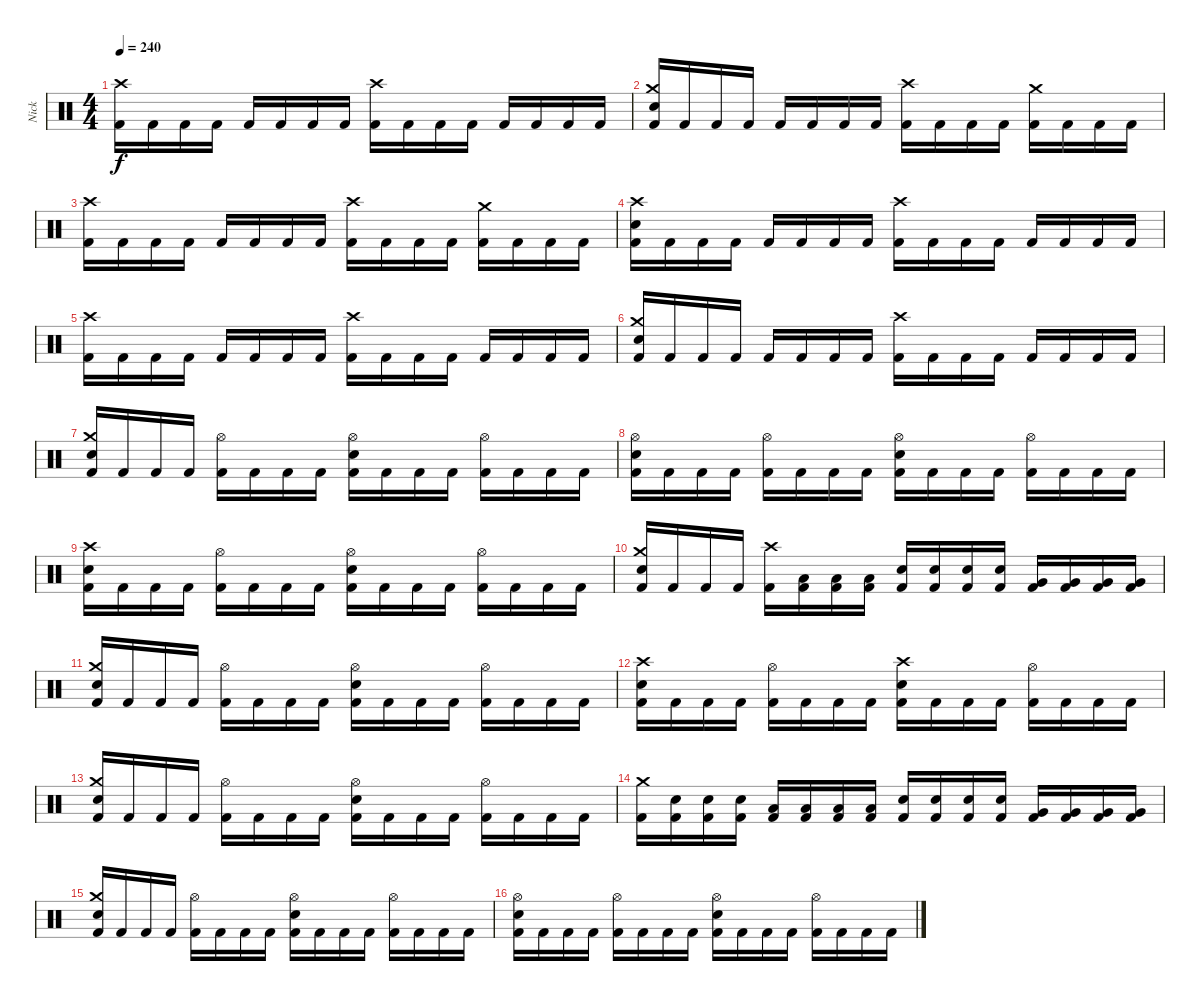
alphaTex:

\track ("Nick" "Nick") {instrument percussion}
\staff {score}
\articulation defaults
\ts (4 4)
\tempo 240
\clef neutral
\ks c
("Crash high (hit)" "Kick (hit) 2").16{dy f} "Kick (hit) 2".16 "Kick (hit) 2".16 "Kick (hit) 2".16 "Kick (hit) 2".16 "Kick (hit) 2".16 "Kick (hit) 2".16 "Kick (hit) 2".16 ("Crash high (hit)" "Kick (hit) 2").16 "Kick (hit) 2".16 "Kick (hit) 2".16 "Kick (hit) 2".16 "Kick (hit) 2".16 "Kick (hit) 2".16 "Kick (hit) 2".16 "Kick (hit) 2".16 |
("Crash medium (hit)" "Electric Snare (hit)" "Kick (hit) 2").16 "Kick (hit) 2".16 "Kick (hit) 2".16 "Kick (hit) 2".16 "Kick (hit) 2".16 "Kick (hit) 2".16 "Kick (hit) 2".16 "Kick (hit) 2".16 ("Crash high (hit)" "Kick (hit) 2").16 "Kick (hit) 2".16 "Kick (hit) 2".16 "Kick (hit) 2".16 ("Crash medium (hit)" "Kick (hit) 2").16 "Kick (hit) 2".16 "Kick (hit) 2".16 "Kick (hit) 2".16 |
("Crash high (hit)" "Kick (hit) 2").16 "Kick (hit) 2".16 "Kick (hit) 2".16 "Kick (hit) 2".16 "Kick (hit) 2".16 "Kick (hit) 2".16 "Kick (hit) 2".16 "Kick (hit) 2".16 ("Crash high (hit)" "Kick (hit) 2").16 "Kick (hit) 2".16 "Kick (hit) 2".16 "Kick (hit) 2".16 ("Crash medium (hit)" "Kick (hit) 2").16 "Kick (hit) 2".16 "Kick (hit) 2".16 "Kick (hit) 2".16 |
("Crash high (hit)" "Electric Snare (hit)" "Kick (hit) 2").16 "Kick (hit) 2".16 "Kick (hit) 2".16 "Kick (hit) 2".16 "Kick (hit) 2".16 "Kick (hit) 2".16 "Kick (hit) 2".16 "Kick (hit) 2".16 ("Crash high (hit)" "Kick (hit) 2").16 "Kick (hit) 2".16 "Kick (hit) 2".16 "Kick (hit) 2".16 "Kick (hit) 2".16 "Kick (hit) 2".16 "Kick (hit) 2".16 "Kick (hit) 2".16 |
("Crash high (hit)" "Kick (hit) 2").16 "Kick (hit) 2".16 "Kick (hit) 2".16 "Kick (hit) 2".16 "Kick (hit) 2".16 "Kick (hit) 2".16 "Kick (hit) 2".16 "Kick (hit) 2".16 ("Crash high (hit)" "Kick (hit) 2").16 "Kick (hit) 2".16 "Kick (hit) 2".16 "Kick (hit) 2".16 "Kick (hit) 2".16 "Kick (hit) 2".16 "Kick (hit) 2".16 "Kick (hit) 2".16 |
("Crash medium (hit)" "Electric Snare (hit)" "Kick (hit) 2").16 "Kick (hit) 2".16 "Kick (hit) 2".16 "Kick (hit) 2".16 "Kick (hit) 2".16 "Kick (hit) 2".16 "Kick (hit) 2".16 "Kick (hit) 2".16 ("Crash high (hit)" "Kick (hit) 2").16 "Kick (hit) 2".16 "Kick (hit) 2".16 "Kick (hit) 2".16 "Kick (hit) 2".16 "Kick (hit) 2".16 "Kick (hit) 2".16 "Kick (hit) 2".16 |
("Crash medium (hit)" "Electric Snare (hit)" "Kick (hit) 2").16 "Kick (hit) 2".16 "Kick (hit) 2".16 "Kick (hit) 2".16 ("Hi-Hat (open)" "Kick (hit) 2").16 "Kick (hit) 2".16 "Kick (hit) 2".16 "Kick (hit) 2".16 ("Hi-Hat (open)" "Electric Snare (hit)" "Kick (hit) 2").16 "Kick (hit) 2".16 "Kick (hit) 2".16 "Kick (hit) 2".16 ("Hi-Hat (open)" "Kick (hit) 2").16 "Kick (hit) 2".16 "Kick (hit) 2".16 "Kick (hit) 2".16 |
("Hi-Hat (open)" "Electric Snare (hit)" "Kick (hit) 2").16 "Kick (hit) 2".16 "Kick (hit) 2".16 "Kick (hit) 2".16 ("Hi-Hat (open)" "Kick (hit) 2").16 "Kick (hit) 2".16 "Kick (hit) 2".16 "Kick (hit) 2".16 ("Hi-Hat (open)" "Electric Snare (hit)" "Kick (hit) 2").16 "Kick (hit) 2".16 "Kick (hit) 2".16 "Kick (hit) 2".16 ("Hi-Hat (open)" "Kick (hit) 2").16 "Kick (hit) 2".16 "Kick (hit) 2".16 "Kick (hit) 2".16 |
("Crash high (hit)" "Electric Snare (hit)" "Kick (hit) 2").16 "Kick (hit) 2".16 "Kick (hit) 2".16 "Kick (hit) 2".16 ("Hi-Hat (open)" "Kick (hit) 2").16 "Kick (hit) 2".16 "Kick (hit) 2".16 "Kick (hit) 2".16 ("Hi-Hat (open)" "Electric Snare (hit)" "Kick (hit) 2").16 "Kick (hit) 2".16 "Kick (hit) 2".16 "Kick (hit) 2".16 ("Hi-Hat (open)" "Kick (hit) 2").16 "Kick (hit) 2".16 "Kick (hit) 2".16 "Kick (hit) 2".16 |
("Crash medium (hit)" "Electric Snare (hit)" "Kick (hit) 2").16 "Kick (hit) 2".16 "Kick (hit) 2".16 "Kick (hit) 2".16 ("Crash high (hit)" "Kick (hit) 2").16 ("Low Tom (hit)" "Kick (hit) 2").16 ("Low Tom (hit)" "Kick (hit) 2").16 ("Low Tom (hit)" "Kick (hit) 2").16 ("Electric Snare (hit)" "Kick (hit) 2").16 ("Electric Snare (hit)" "Kick (hit) 2").16 ("Electric Snare (hit)" "Kick (hit) 2").16 ("Electric Snare (hit)" "Kick (hit) 2").16 ("Very Low Tom (hit)" "Kick (hit) 2").16 ("Very Low Tom (hit)" "Kick (hit) 2").16 ("Very Low Tom (hit)" "Kick (hit) 2").16 ("Very Low Tom (hit)" "Kick (hit) 2").16 |
("Crash medium (hit)" "Electric Snare (hit)" "Kick (hit) 2").16 "Kick (hit) 2".16 "Kick (hit) 2".16 "Kick (hit) 2".16 ("Hi-Hat (open)" "Kick (hit) 2").16 "Kick (hit) 2".16 "Kick (hit) 2".16 "Kick (hit) 2".16 ("Hi-Hat (open)" "Electric Snare (hit)" "Kick (hit) 2").16 "Kick (hit) 2".16 "Kick (hit) 2".16 "Kick (hit) 2".16 ("Hi-Hat (open)" "Kick (hit) 2").16 "Kick (hit) 2".16 "Kick (hit) 2".16 "Kick (hit) 2".16 |
("Crash high (hit)" "Electric Snare (hit)" "Kick (hit) 2").16 "Kick (hit) 2".16 "Kick (hit) 2".16 "Kick (hit) 2".16 ("Hi-Hat (open)" "Kick (hit) 2").16 "Kick (hit) 2".16 "Kick (hit) 2".16 "Kick (hit) 2".16 ("Crash high (hit)" "Electric Snare (hit)" "Kick (hit) 2").16 "Kick (hit) 2".16 "Kick (hit) 2".16 "Kick (hit) 2".16 ("Hi-Hat (open)" "Kick (hit) 2").16 "Kick (hit) 2".16 "Kick (hit) 2".16 "Kick (hit) 2".16 |
("Crash medium (hit)" "Electric Snare (hit)" "Kick (hit) 2").16 "Kick (hit) 2".16 "Kick (hit) 2".16 "Kick (hit) 2".16 ("Hi-Hat (open)" "Kick (hit) 2").16 "Kick (hit) 2".16 "Kick (hit) 2".16 "Kick (hit) 2".16 ("Hi-Hat (open)" "Electric Snare (hit)" "Kick (hit) 2").16 "Kick (hit) 2".16 "Kick (hit) 2".16 "Kick (hit) 2".16 ("Hi-Hat (open)" "Kick (hit) 2").16 "Kick (hit) 2".16 "Kick (hit) 2".16 "Kick (hit) 2".16 |
("Crash medium (hit)" "Kick (hit) 2").16 ("Electric Snare (hit)" "Kick (hit) 2").16 ("Electric Snare (hit)" "Kick (hit) 2").16 ("Electric Snare (hit)" "Kick (hit) 2").16 ("Low Tom (hit)" "Kick (hit) 2").16 ("Low Tom (hit)" "Kick (hit) 2").16 ("Low Tom (hit)" "Kick (hit) 2").16 ("Low Tom (hit)" "Kick (hit) 2").16 ("Electric Snare (hit)" "Kick (hit) 2").16 ("Electric Snare (hit)" "Kick (hit) 2").16 ("Electric Snare (hit)" "Kick (hit) 2").16 ("Electric Snare (hit)" "Kick (hit) 2").16 ("Very Low Tom (hit)" "Kick (hit) 2").16 ("Very Low Tom (hit)" "Kick (hit) 2").16 ("Very Low Tom (hit)" "Kick (hit) 2").16 ("Very Low Tom (hit)" "Kick (hit) 2").16 |
("Crash medium (hit)" "Electric Snare (hit)" "Kick (hit) 2").16 "Kick (hit) 2".16 "Kick (hit) 2".16 "Kick (hit) 2".16 ("Hi-Hat (open)" "Kick (hit) 2").16 "Kick (hit) 2".16 "Kick (hit) 2".16 "Kick (hit) 2".16 ("Hi-Hat (open)" "Electric Snare (hit)" "Kick (hit) 2").16 "Kick (hit) 2".16 "Kick (hit) 2".16 "Kick (hit) 2".16 ("Hi-Hat (open)" "Kick (hit) 2").16 "Kick (hit) 2".16 "Kick (hit) 2".16 "Kick (hit) 2".16 |
("Hi-Hat (open)" "Electric Snare (hit)" "Kick (hit) 2").16 "Kick (hit) 2".16 "Kick (hit) 2".16 "Kick (hit) 2".16 ("Hi-Hat (open)" "Kick (hit) 2").16 "Kick (hit) 2".16 "Kick (hit) 2".16 "Kick (hit) 2".16 ("Hi-Hat (open)" "Electric Snare (hit)" "Kick (hit) 2").16 "Kick (hit) 2".16 "Kick (hit) 2".16 "Kick (hit) 2".16 ("Hi-Hat (open)" "Kick (hit) 2").16 "Kick (hit) 2".16 "Kick (hit) 2".16 "Kick (hit) 2".16
